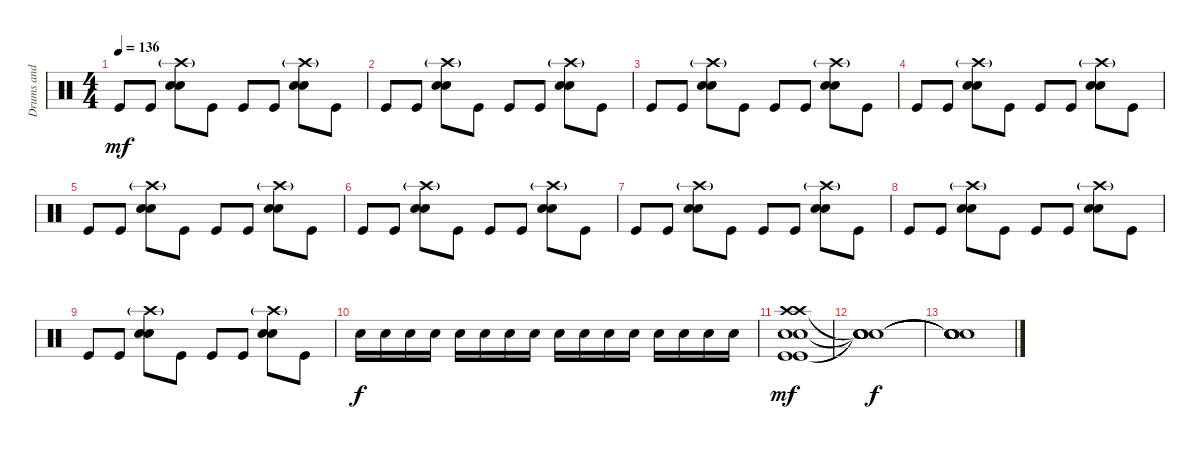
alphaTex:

\track ("Drums and Percussions" "Drums and ") {instrument percussion}
\staff {score}
\articulation defaults
\ts (4 4)
\tempo 136
\clef neutral
\ks c "Kick (hit)".8{dy mf} "Kick (hit)".8
("Crash high (hit)"{g} "Electric Snare (hit)" "Electric Snare (hit)").8 "Kick (hit)".8 "Kick (hit)".8 "Kick (hit)".8 ("Crash high (hit)"{g} "Electric Snare (hit)" "Electric Snare (hit)").8 "Kick (hit)".8 |
"Kick (hit)".8 "Kick (hit)".8 ("Crash high (hit)"{g} "Electric Snare (hit)" "Electric Snare (hit)").8 "Kick (hit)".8 "Kick (hit)".8 "Kick (hit)".8 ("Crash high (hit)"{g} "Electric Snare (hit)" "Electric Snare (hit)").8 "Kick (hit)".8 |
"Kick (hit)".8 "Kick (hit)".8 ("Crash high (hit)"{g} "Electric Snare (hit)" "Electric Snare (hit)").8 "Kick (hit)".8 "Kick (hit)".8 "Kick (hit)".8 ("Crash high (hit)"{g} "Electric Snare (hit)" "Electric Snare (hit)").8 "Kick (hit)".8 |
"Kick (hit)".8 "Kick (hit)".8 ("Crash high (hit)"{g} "Electric Snare (hit)" "Electric Snare (hit)").8 "Kick (hit)".8 "Kick (hit)".8 "Kick (hit)".8 ("Crash high (hit)"{g} "Electric Snare (hit)" "Electric Snare (hit)").8 "Kick (hit)".8 |
"Kick (hit)".8 "Kick (hit)".8 ("Crash high (hit)"{g} "Electric Snare (hit)" "Electric Snare (hit)").8 "Kick (hit)".8 "Kick (hit)".8 "Kick (hit)".8 ("Crash high (hit)"{g} "Electric Snare (hit)" "Electric Snare (hit)").8 "Kick (hit)".8 |
"Kick (hit)".8 "Kick (hit)".8 ("Crash high (hit)"{g} "Electric Snare (hit)" "Electric Snare (hit)").8 "Kick (hit)".8 "Kick (hit)".8 "Kick (hit)".8 ("Crash high (hit)"{g} "Electric Snare (hit)" "Electric Snare (hit)").8 "Kick (hit)".8 |
"Kick (hit)".8 "Kick (hit)".8 ("Crash high (hit)"{g} "Electric Snare (hit)" "Electric Snare (hit)").8 "Kick (hit)".8 "Kick (hit)".8 "Kick (hit)".8 ("Crash high (hit)"{g} "Electric Snare (hit)" "Electric Snare (hit)").8 "Kick (hit)".8 |
"Kick (hit)".8 "Kick (hit)".8 ("Crash high (hit)"{g} "Electric Snare (hit)" "Electric Snare (hit)").8 "Kick (hit)".8 "Kick (hit)".8 "Kick (hit)".8 ("Crash high (hit)"{g} "Electric Snare (hit)" "Electric Snare (hit)").8 "Kick (hit)".8 |
"Kick (hit)".8 "Kick (hit)".8 ("Crash high (hit)"{g} "Electric Snare (hit)" "Electric Snare (hit)").8 "Kick (hit)".8 "Kick (hit)".8 "Kick (hit)".8 ("Crash high (hit)"{g} "Electric Snare (hit)" "Electric Snare (hit)").8 "Kick (hit)".8 |
"Electric Snare (hit)".16{dy f} "Electric Snare (hit)".16 "Electric Snare (hit)".16 "Electric Snare (hit)".16 "Electric Snare (hit)".16 "Electric Snare (hit)".16 "Electric Snare (hit)".16 "Electric Snare (hit)".16 "Electric Snare (hit)".16 "Electric Snare (hit)".16 "Electric Snare (hit)".16 "Electric Snare (hit)".16 "Electric Snare (hit)".16 "Electric Snare (hit)".16 "Electric Snare (hit)".16 "Electric Snare (hit)".16 |
("Crash high (hit)" "Crash high (hit)" "Electric Snare (hit)" "Electric Snare (hit)" "Kick (hit)" "Kick (hit)").1{dy mf} |
("Snare (hit)"{t} "Snare (hit)"{t} "Snare (hit)"{t} "Snare (hit)"{t} "Snare (hit)"{t} "Snare (hit)"{t}).1{dy f} |
("Snare (hit)"{t} "Snare (hit)"{t} "Snare (hit)"{t} "Snare (hit)"{t} "Snare (hit)"{t} "Snare (hit)"{t}).1
